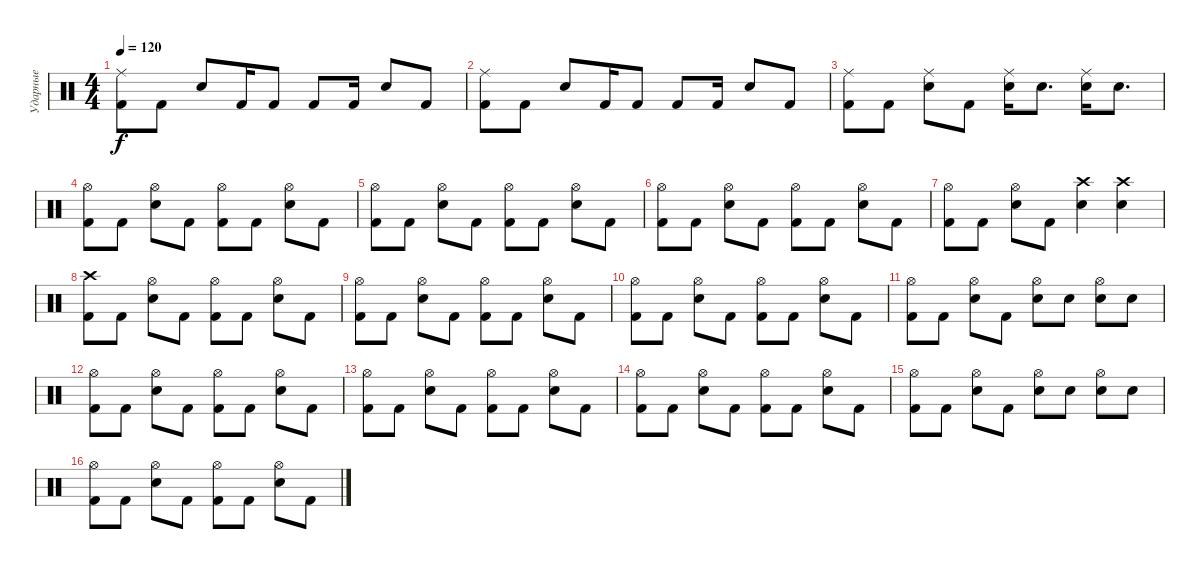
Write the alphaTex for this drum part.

\track ("Ударные" "Ударные") {instrument percussion}
\staff {score}
\articulation defaults
\ts (4 4)
\tempo 120
\clef neutral
\ks c
("Ride (middle)" "Kick (hit) 2").8{dy f} "Kick (hit) 2".8 "Snare (hit) 2".8 "Kick (hit) 2".16 "Kick (hit) 2".8 "Kick (hit) 2".8 "Kick (hit) 2".16 "Snare (hit) 2".8 "Kick (hit) 2".8 |
("Ride (middle)" "Kick (hit) 2").8 "Kick (hit) 2".8 "Snare (hit) 2".8 "Kick (hit) 2".16 "Kick (hit) 2".8 "Kick (hit) 2".8 "Kick (hit) 2".16 "Snare (hit) 2".8 "Kick (hit) 2".8 |
("Ride (middle)" "Kick (hit) 2").8 "Kick (hit) 2".8 ("Ride (middle)" "Snare (hit) 2").8 "Kick (hit) 2".8 ("Ride (middle)" "Snare (hit) 2").16 "Snare (hit) 2".8{d} ("Ride (middle)" "Snare (hit) 2").16 "Snare (hit) 2".8{d} |
("Hi-Hat (open)" "Kick (hit) 2").8 "Kick (hit) 2".8 ("Hi-Hat (open)" "Snare (hit) 2").8 "Kick (hit) 2".8 ("Hi-Hat (open)" "Kick (hit) 2").8 "Kick (hit) 2".8 ("Hi-Hat (open)" "Snare (hit) 2").8 "Kick (hit) 2".8 |
("Hi-Hat (open)" "Kick (hit) 2").8 "Kick (hit) 2".8 ("Hi-Hat (open)" "Snare (hit) 2").8 "Kick (hit) 2".8 ("Hi-Hat (open)" "Kick (hit) 2").8 "Kick (hit) 2".8 ("Hi-Hat (open)" "Snare (hit) 2").8 "Kick (hit) 2".8 |
("Hi-Hat (open)" "Kick (hit) 2").8 "Kick (hit) 2".8 ("Hi-Hat (open)" "Snare (hit) 2").8 "Kick (hit) 2".8 ("Hi-Hat (open)" "Kick (hit) 2").8 "Kick (hit) 2".8 ("Hi-Hat (open)" "Snare (hit) 2").8 "Kick (hit) 2".8 |
("Hi-Hat (open)" "Kick (hit) 2").8 "Kick (hit) 2".8 ("Hi-Hat (open)" "Snare (hit) 2").8 "Kick (hit) 2".8 ("Crash high (hit)" "Snare (hit) 2").4 ("Crash high (hit)" "Snare (hit) 2").4 |
("Crash high (hit)" "Kick (hit) 2").8 "Kick (hit) 2".8 ("Hi-Hat (open)" "Snare (hit) 2").8 "Kick (hit) 2".8 ("Hi-Hat (open)" "Kick (hit) 2").8 "Kick (hit) 2".8 ("Hi-Hat (open)" "Snare (hit) 2").8 "Kick (hit) 2".8 |
("Hi-Hat (open)" "Kick (hit) 2").8 "Kick (hit) 2".8 ("Hi-Hat (open)" "Snare (hit) 2").8 "Kick (hit) 2".8 ("Hi-Hat (open)" "Kick (hit) 2").8 "Kick (hit) 2".8 ("Hi-Hat (open)" "Snare (hit) 2").8 "Kick (hit) 2".8 |
("Hi-Hat (open)" "Kick (hit) 2").8 "Kick (hit) 2".8 ("Hi-Hat (open)" "Snare (hit) 2").8 "Kick (hit) 2".8 ("Hi-Hat (open)" "Kick (hit) 2").8 "Kick (hit) 2".8 ("Hi-Hat (open)" "Snare (hit) 2").8 "Kick (hit) 2".8 |
("Hi-Hat (open)" "Kick (hit) 2").8 "Kick (hit) 2".8 ("Hi-Hat (open)" "Snare (hit) 2").8 "Kick (hit) 2".8 ("Hi-Hat (open)" "Snare (hit) 2").8 "Snare (hit) 2".8 ("Hi-Hat (open)" "Snare (hit) 2").8 "Snare (hit) 2".8 |
("Hi-Hat (open)" "Kick (hit) 2").8 "Kick (hit) 2".8 ("Hi-Hat (open)" "Snare (hit) 2").8 "Kick (hit) 2".8 ("Hi-Hat (open)" "Kick (hit) 2").8 "Kick (hit) 2".8 ("Hi-Hat (open)" "Snare (hit) 2").8 "Kick (hit) 2".8 |
("Hi-Hat (open)" "Kick (hit) 2").8 "Kick (hit) 2".8 ("Hi-Hat (open)" "Snare (hit) 2").8 "Kick (hit) 2".8 ("Hi-Hat (open)" "Kick (hit) 2").8 "Kick (hit) 2".8 ("Hi-Hat (open)" "Snare (hit) 2").8 "Kick (hit) 2".8 |
("Hi-Hat (open)" "Kick (hit) 2").8 "Kick (hit) 2".8 ("Hi-Hat (open)" "Snare (hit) 2").8 "Kick (hit) 2".8 ("Hi-Hat (open)" "Kick (hit) 2").8 "Kick (hit) 2".8 ("Hi-Hat (open)" "Snare (hit) 2").8 "Kick (hit) 2".8 |
("Hi-Hat (open)" "Kick (hit) 2").8 "Kick (hit) 2".8 ("Hi-Hat (open)" "Snare (hit) 2").8 "Kick (hit) 2".8 ("Hi-Hat (open)" "Snare (hit) 2").8 "Snare (hit) 2".8 ("Hi-Hat (open)" "Snare (hit) 2").8 "Snare (hit) 2".8 |
("Hi-Hat (open)" "Kick (hit) 2").8 "Kick (hit) 2".8 ("Hi-Hat (open)" "Snare (hit) 2").8 "Kick (hit) 2".8 ("Hi-Hat (open)" "Kick (hit) 2").8 "Kick (hit) 2".8 ("Hi-Hat (open)" "Snare (hit) 2").8 "Kick (hit) 2".8
